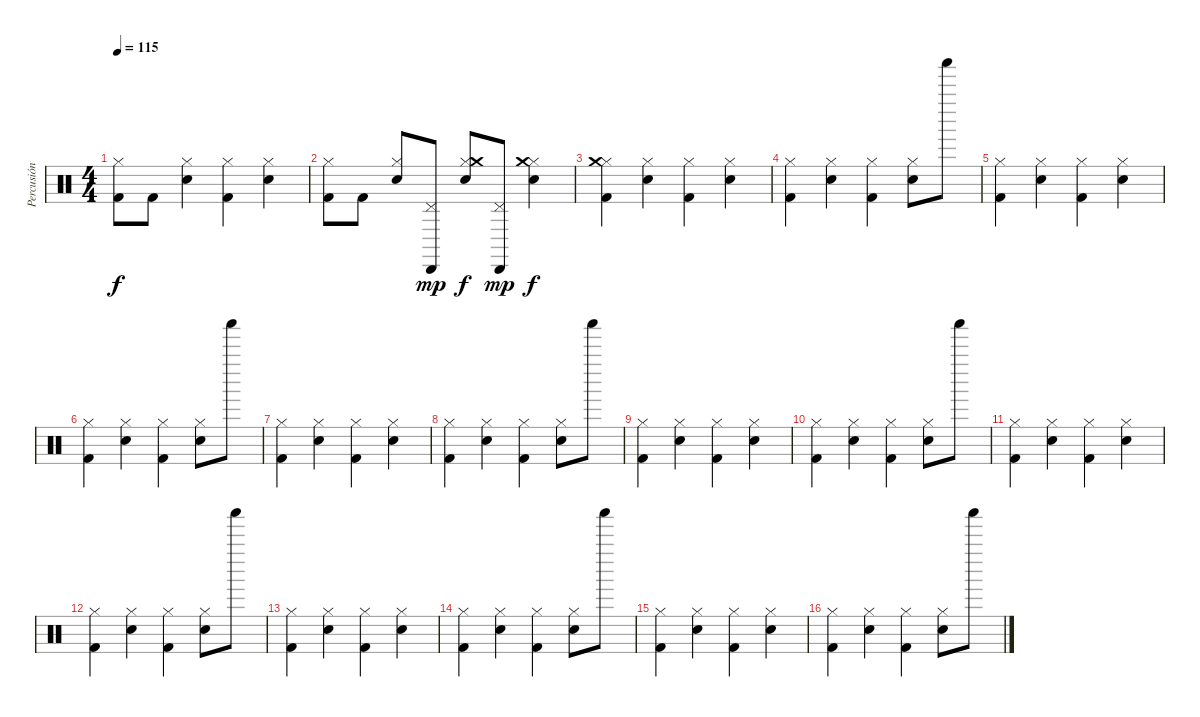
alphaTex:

\track ("Percusión" "Percusión") {instrument percussion}
\staff {score}
\articulation defaults
\ts (4 4)
\tempo 115
\clef neutral
\ks c
("Hi-Hat (closed)" "Kick (hit) 2").8{dy f} "Kick (hit) 2".8 ("Hi-Hat (closed)" "Snare (hit) 2").4 ("Hi-Hat (closed)" "Kick (hit) 2").4 ("Hi-Hat (closed)" "Snare (hit) 2").4 |
("Hi-Hat (closed)" "Kick (hit) 2").8 "Kick (hit) 2".8 ("Hi-Hat (closed)" "Snare (hit) 2").8 ("Pedal Hi-Hat (hit)" "Cabasa (hit)").8{dy mp} ("Hi-Hat (closed)" "Snare (hit) 2" "Crash medium (hit)").8{dy f} ("Pedal Hi-Hat (hit)" "Cabasa (hit)").8{dy mp} ("Hi-Hat (closed)" "Snare (hit) 2" "Crash medium (hit)").4{dy f} |
("Hi-Hat (closed)" "Kick (hit) 2" "Crash medium (hit)").4 ("Hi-Hat (closed)" "Snare (hit) 2").4 ("Hi-Hat (closed)" "Kick (hit) 2").4 ("Hi-Hat (closed)" "Snare (hit) 2").4 |
("Hi-Hat (closed)" "Kick (hit) 2").4 ("Hi-Hat (closed)" "Snare (hit) 2").4 ("Hi-Hat (closed)" "Kick (hit) 2").4 ("Hi-Hat (closed)" "Snare (hit) 2").8 "Shaker (hit)".8 |
("Hi-Hat (closed)" "Kick (hit) 2").4 ("Hi-Hat (closed)" "Snare (hit) 2").4 ("Hi-Hat (closed)" "Kick (hit) 2").4 ("Hi-Hat (closed)" "Snare (hit) 2").4 |
("Hi-Hat (closed)" "Kick (hit) 2").4 ("Hi-Hat (closed)" "Snare (hit) 2").4 ("Hi-Hat (closed)" "Kick (hit) 2").4 ("Hi-Hat (closed)" "Snare (hit) 2").8 "Shaker (hit)".8 |
("Hi-Hat (closed)" "Kick (hit) 2").4 ("Hi-Hat (closed)" "Snare (hit) 2").4 ("Hi-Hat (closed)" "Kick (hit) 2").4 ("Hi-Hat (closed)" "Snare (hit) 2").4 |
("Hi-Hat (closed)" "Kick (hit) 2").4 ("Hi-Hat (closed)" "Snare (hit) 2").4 ("Hi-Hat (closed)" "Kick (hit) 2").4 ("Hi-Hat (closed)" "Snare (hit) 2").8 "Shaker (hit)".8 |
("Hi-Hat (closed)" "Kick (hit) 2").4 ("Hi-Hat (closed)" "Snare (hit) 2").4 ("Hi-Hat (closed)" "Kick (hit) 2").4 ("Hi-Hat (closed)" "Snare (hit) 2").4 |
("Hi-Hat (closed)" "Kick (hit) 2").4 ("Hi-Hat (closed)" "Snare (hit) 2").4 ("Hi-Hat (closed)" "Kick (hit) 2").4 ("Hi-Hat (closed)" "Snare (hit) 2").8 "Shaker (hit)".8 |
("Hi-Hat (closed)" "Kick (hit) 2").4 ("Hi-Hat (closed)" "Snare (hit) 2").4 ("Hi-Hat (closed)" "Kick (hit) 2").4 ("Hi-Hat (closed)" "Snare (hit) 2").4 |
("Hi-Hat (closed)" "Kick (hit) 2").4 ("Hi-Hat (closed)" "Snare (hit) 2").4 ("Hi-Hat (closed)" "Kick (hit) 2").4 ("Hi-Hat (closed)" "Snare (hit) 2").8 "Shaker (hit)".8 |
("Hi-Hat (closed)" "Kick (hit) 2").4 ("Hi-Hat (closed)" "Snare (hit) 2").4 ("Hi-Hat (closed)" "Kick (hit) 2").4 ("Hi-Hat (closed)" "Snare (hit) 2").4 |
("Hi-Hat (closed)" "Kick (hit) 2").4 ("Hi-Hat (closed)" "Snare (hit) 2").4 ("Hi-Hat (closed)" "Kick (hit) 2").4 ("Hi-Hat (closed)" "Snare (hit) 2").8 "Shaker (hit)".8 |
("Hi-Hat (closed)" "Kick (hit) 2").4 ("Hi-Hat (closed)" "Snare (hit) 2").4 ("Hi-Hat (closed)" "Kick (hit) 2").4 ("Hi-Hat (closed)" "Snare (hit) 2").4 |
("Hi-Hat (closed)" "Kick (hit) 2").4 ("Hi-Hat (closed)" "Snare (hit) 2").4 ("Hi-Hat (closed)" "Kick (hit) 2").4 ("Hi-Hat (closed)" "Snare (hit) 2").8 "Shaker (hit)".8
